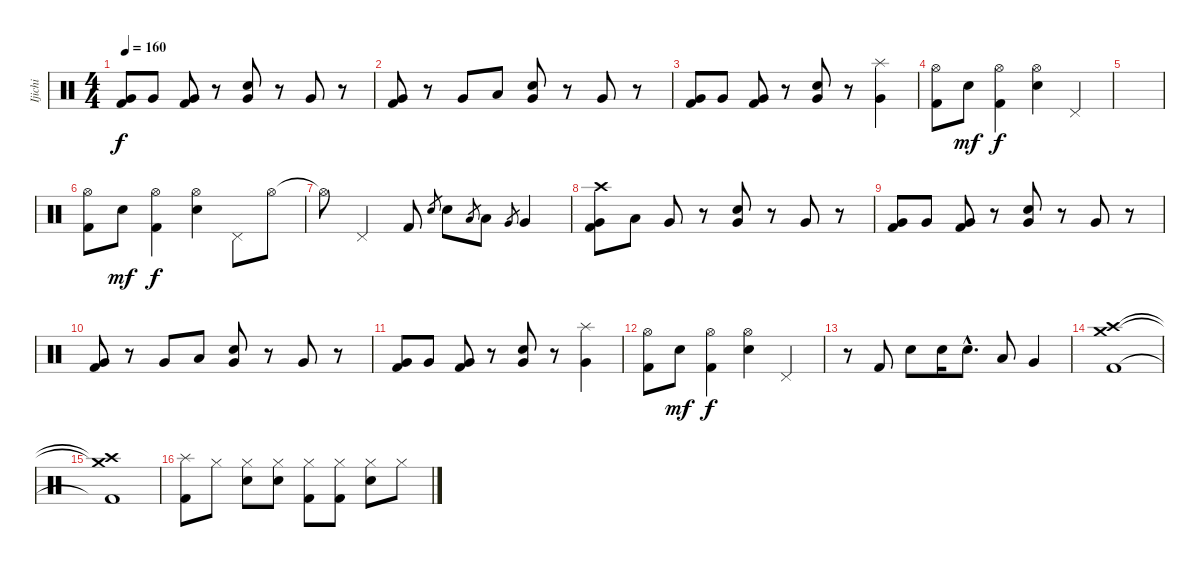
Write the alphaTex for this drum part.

\track ("Ijichi" "Ijichi") {instrument percussion}
\staff {score}
\articulation defaults
\ts (4 4)
\tempo 160
\clef neutral
\ks c
("Kick (hit) 2" "Very Low Tom (hit)").8{dy f} "Very Low Tom (hit)".8 ("Kick (hit) 2" "Very Low Tom (hit)").8 r.8 ("Electric Snare (hit)" "Very Low Tom (hit)").8 r.8 "Very Low Tom (hit)".8 r.8 |
("Kick (hit) 2" "Very Low Tom (hit)").8 r.8 "Very Low Tom (hit)".8 "Low Tom (hit)".8 ("Electric Snare (hit)" "Very Low Tom (hit)").8 r.8 "Very Low Tom (hit)".8 r.8 |
("Kick (hit) 2" "Very Low Tom (hit)").8 "Very Low Tom (hit)".8 ("Kick (hit) 2" "Very Low Tom (hit)").8 r.8 ("Electric Snare (hit)" "Very Low Tom (hit)").8 r.8 ("Splash (hit)" "Very Low Tom (hit)").4 |
("Kick (hit) 2" "Hi-Hat (open)").8 "Electric Snare (hit)".8{dy mf} ("Kick (hit) 2" "Hi-Hat (open)").4{dy f} ("Electric Snare (hit)" "Hi-Hat (open)").4 "Pedal Hi-Hat (hit)".4 |
|
("Kick (hit) 2" "Hi-Hat (open)").8 "Electric Snare (hit)".8{dy mf} ("Kick (hit) 2" "Hi-Hat (open)").4{dy f} ("Electric Snare (hit)" "Hi-Hat (open)").4 "Pedal Hi-Hat (hit)".8 "Hi-Hat (open)".8 |
"Hi-Hat (open)"{t}.8 "Pedal Hi-Hat (hit)".4 "Kick (hit) 2".8 "Electric Snare (hit)".8{gr} "Electric Snare (hit)".8 "Low Tom (hit)".8{gr} "Low Tom (hit)".8 "Very Low Tom (hit)".8{gr} "Very Low Tom (hit)".4 |
("Kick (hit) 2" "Very Low Tom (hit)" "Crash high (hit)").8 "Low Tom (hit)".8 "Very Low Tom (hit)".8 r.8 ("Electric Snare (hit)" "Very Low Tom (hit)").8 r.8 "Very Low Tom (hit)".8 r.8 |
("Kick (hit) 2" "Very Low Tom (hit)").8 "Very Low Tom (hit)".8 ("Kick (hit) 2" "Very Low Tom (hit)").8 r.8 ("Electric Snare (hit)" "Very Low Tom (hit)").8 r.8 "Very Low Tom (hit)".8 r.8 |
("Kick (hit) 2" "Very Low Tom (hit)").8 r.8 "Very Low Tom (hit)".8 "Low Tom (hit)".8 ("Electric Snare (hit)" "Very Low Tom (hit)").8 r.8 "Very Low Tom (hit)".8 r.8 |
("Kick (hit) 2" "Very Low Tom (hit)").8 "Very Low Tom (hit)".8 ("Kick (hit) 2" "Very Low Tom (hit)").8 r.8 ("Electric Snare (hit)" "Very Low Tom (hit)").8 r.8 ("Splash (hit)" "Very Low Tom (hit)").4 |
("Kick (hit) 2" "Hi-Hat (open)").8 "Electric Snare (hit)".8{dy mf} ("Kick (hit) 2" "Hi-Hat (open)").4{dy f} ("Electric Snare (hit)" "Hi-Hat (open)").4 "Pedal Hi-Hat (hit)".4 |
r.8 "Kick (hit) 2".8 "Electric Snare (hit)".8 "Electric Snare (hit)".16 "Electric Snare (hit)"{hac}.8{d} "Low Tom (hit)".8 "Very Low Tom (hit)".4 |
("Kick (hit) 2" "Crash high (hit)" "Crash medium (hit)").1 |
("Kick (hit) 2"{t} "Crash high (hit)"{t} "Crash medium (hit)"{t}).1 |
("Kick (hit) 2" "Splash (hit)").8 "Hi-Hat (closed)".8 ("Electric Snare (hit)" "Hi-Hat (closed)").8 ("Electric Snare (hit)" "Hi-Hat (closed)").8 ("Kick (hit) 2" "Hi-Hat (closed)").8 ("Kick (hit) 2" "Hi-Hat (closed)").8 ("Electric Snare (hit)" "Hi-Hat (closed)").8 "Hi-Hat (closed)".8
